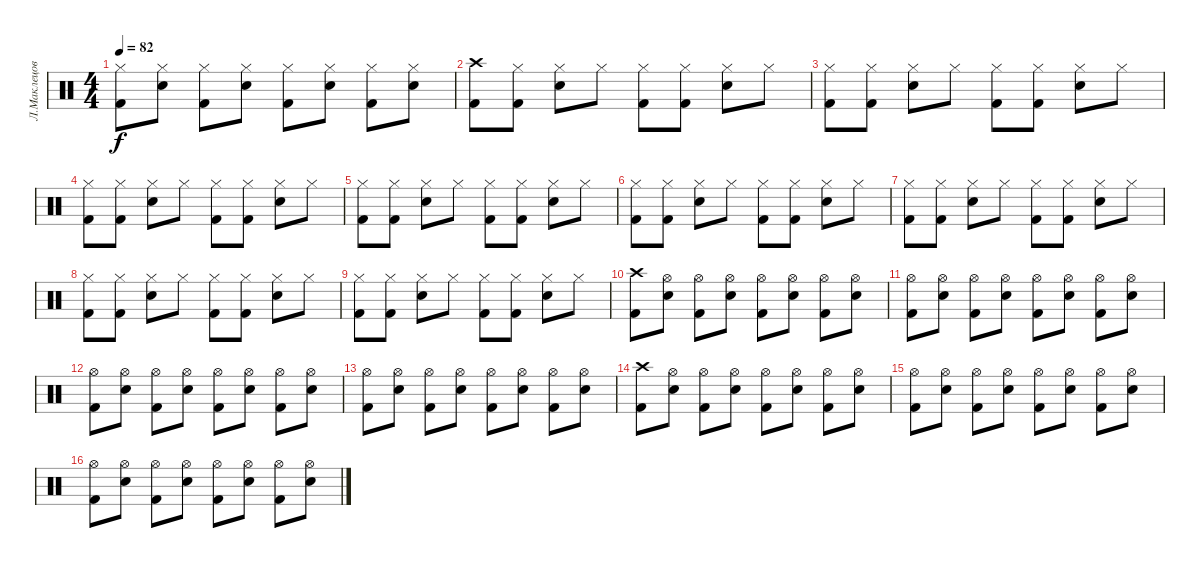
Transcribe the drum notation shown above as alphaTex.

\track ("Л.Маклецова" "Л.Маклецов") {instrument percussion}
\staff {score}
\articulation defaults
\ts (4 4)
\tempo 82
\clef neutral
\ks c
("Hi-Hat (closed)" "Kick (hit) 2").8{dy f} ("Hi-Hat (closed)" "Snare (hit) 2").8 ("Hi-Hat (closed)" "Kick (hit) 2").8 ("Hi-Hat (closed)" "Snare (hit) 2").8 ("Hi-Hat (closed)" "Kick (hit) 2").8 ("Hi-Hat (closed)" "Snare (hit) 2").8 ("Hi-Hat (closed)" "Kick (hit) 2").8 ("Hi-Hat (closed)" "Snare (hit) 2").8 |
("Crash high (hit)" "Kick (hit) 2").8 ("Hi-Hat (closed)" "Kick (hit) 2").8 ("Hi-Hat (closed)" "Snare (hit) 2").8 "Hi-Hat (closed)".8 ("Hi-Hat (closed)" "Kick (hit) 2").8 ("Hi-Hat (closed)" "Kick (hit) 2").8 ("Hi-Hat (closed)" "Snare (hit) 2").8 "Hi-Hat (closed)".8 |
("Hi-Hat (closed)" "Kick (hit) 2").8 ("Hi-Hat (closed)" "Kick (hit) 2").8 ("Hi-Hat (closed)" "Snare (hit) 2").8 "Hi-Hat (closed)".8 ("Hi-Hat (closed)" "Kick (hit) 2").8 ("Hi-Hat (closed)" "Kick (hit) 2").8 ("Hi-Hat (closed)" "Snare (hit) 2").8 "Hi-Hat (closed)".8 |
("Hi-Hat (closed)" "Kick (hit) 2").8 ("Hi-Hat (closed)" "Kick (hit) 2").8 ("Hi-Hat (closed)" "Snare (hit) 2").8 "Hi-Hat (closed)".8 ("Hi-Hat (closed)" "Kick (hit) 2").8 ("Hi-Hat (closed)" "Kick (hit) 2").8 ("Hi-Hat (closed)" "Snare (hit) 2").8 "Hi-Hat (closed)".8 |
("Hi-Hat (closed)" "Kick (hit) 2").8 ("Hi-Hat (closed)" "Kick (hit) 2").8 ("Hi-Hat (closed)" "Snare (hit) 2").8 "Hi-Hat (closed)".8 ("Hi-Hat (closed)" "Kick (hit) 2").8 ("Hi-Hat (closed)" "Kick (hit) 2").8 ("Hi-Hat (closed)" "Snare (hit) 2").8 "Hi-Hat (closed)".8 |
("Hi-Hat (closed)" "Kick (hit) 2").8 ("Hi-Hat (closed)" "Kick (hit) 2").8 ("Hi-Hat (closed)" "Snare (hit) 2").8 "Hi-Hat (closed)".8 ("Hi-Hat (closed)" "Kick (hit) 2").8 ("Hi-Hat (closed)" "Kick (hit) 2").8 ("Hi-Hat (closed)" "Snare (hit) 2").8 "Hi-Hat (closed)".8 |
("Hi-Hat (closed)" "Kick (hit) 2").8 ("Hi-Hat (closed)" "Kick (hit) 2").8 ("Hi-Hat (closed)" "Snare (hit) 2").8 "Hi-Hat (closed)".8 ("Hi-Hat (closed)" "Kick (hit) 2").8 ("Hi-Hat (closed)" "Kick (hit) 2").8 ("Hi-Hat (closed)" "Snare (hit) 2").8 "Hi-Hat (closed)".8 |
("Hi-Hat (closed)" "Kick (hit) 2").8 ("Hi-Hat (closed)" "Kick (hit) 2").8 ("Hi-Hat (closed)" "Snare (hit) 2").8 "Hi-Hat (closed)".8 ("Hi-Hat (closed)" "Kick (hit) 2").8 ("Hi-Hat (closed)" "Kick (hit) 2").8 ("Hi-Hat (closed)" "Snare (hit) 2").8 "Hi-Hat (closed)".8 |
("Hi-Hat (closed)" "Kick (hit) 2").8 ("Hi-Hat (closed)" "Kick (hit) 2").8 ("Hi-Hat (closed)" "Snare (hit) 2").8 "Hi-Hat (closed)".8 ("Hi-Hat (closed)" "Kick (hit) 2").8 ("Hi-Hat (closed)" "Kick (hit) 2").8 ("Hi-Hat (closed)" "Snare (hit) 2").8 "Hi-Hat (closed)".8 |
("Crash high (hit)" "Kick (hit) 2").8 ("Hi-Hat (open)" "Snare (hit) 2").8 ("Hi-Hat (open)" "Kick (hit) 2").8 ("Hi-Hat (open)" "Snare (hit) 2").8 ("Hi-Hat (open)" "Kick (hit) 2").8 ("Hi-Hat (open)" "Snare (hit) 2").8 ("Hi-Hat (open)" "Kick (hit) 2").8 ("Hi-Hat (open)" "Snare (hit) 2").8 |
("Hi-Hat (open)" "Kick (hit) 2").8 ("Hi-Hat (open)" "Snare (hit) 2").8 ("Hi-Hat (open)" "Kick (hit) 2").8 ("Hi-Hat (open)" "Snare (hit) 2").8 ("Hi-Hat (open)" "Kick (hit) 2").8 ("Hi-Hat (open)" "Snare (hit) 2").8 ("Hi-Hat (open)" "Kick (hit) 2").8 ("Hi-Hat (open)" "Snare (hit) 2").8 |
("Hi-Hat (open)" "Kick (hit) 2").8 ("Hi-Hat (open)" "Snare (hit) 2").8 ("Hi-Hat (open)" "Kick (hit) 2").8 ("Hi-Hat (open)" "Snare (hit) 2").8 ("Hi-Hat (open)" "Kick (hit) 2").8 ("Hi-Hat (open)" "Snare (hit) 2").8 ("Hi-Hat (open)" "Kick (hit) 2").8 ("Hi-Hat (open)" "Snare (hit) 2").8 |
("Hi-Hat (open)" "Kick (hit) 2").8 ("Hi-Hat (open)" "Snare (hit) 2").8 ("Hi-Hat (open)" "Kick (hit) 2").8 ("Hi-Hat (open)" "Snare (hit) 2").8 ("Hi-Hat (open)" "Kick (hit) 2").8 ("Hi-Hat (open)" "Snare (hit) 2").8 ("Hi-Hat (open)" "Kick (hit) 2").8 ("Hi-Hat (open)" "Snare (hit) 2").8 |
("Crash high (hit)" "Kick (hit) 2").8 ("Hi-Hat (open)" "Snare (hit) 2").8 ("Hi-Hat (open)" "Kick (hit) 2").8 ("Hi-Hat (open)" "Snare (hit) 2").8 ("Hi-Hat (open)" "Kick (hit) 2").8 ("Hi-Hat (open)" "Snare (hit) 2").8 ("Hi-Hat (open)" "Kick (hit) 2").8 ("Hi-Hat (open)" "Snare (hit) 2").8 |
("Hi-Hat (open)" "Kick (hit) 2").8 ("Hi-Hat (open)" "Snare (hit) 2").8 ("Hi-Hat (open)" "Kick (hit) 2").8 ("Hi-Hat (open)" "Snare (hit) 2").8 ("Hi-Hat (open)" "Kick (hit) 2").8 ("Hi-Hat (open)" "Snare (hit) 2").8 ("Hi-Hat (open)" "Kick (hit) 2").8 ("Hi-Hat (open)" "Snare (hit) 2").8 |
("Hi-Hat (open)" "Kick (hit) 2").8 ("Hi-Hat (open)" "Snare (hit) 2").8 ("Hi-Hat (open)" "Kick (hit) 2").8 ("Hi-Hat (open)" "Snare (hit) 2").8 ("Hi-Hat (open)" "Kick (hit) 2").8 ("Hi-Hat (open)" "Snare (hit) 2").8 ("Hi-Hat (open)" "Kick (hit) 2").8 ("Hi-Hat (open)" "Snare (hit) 2").8
